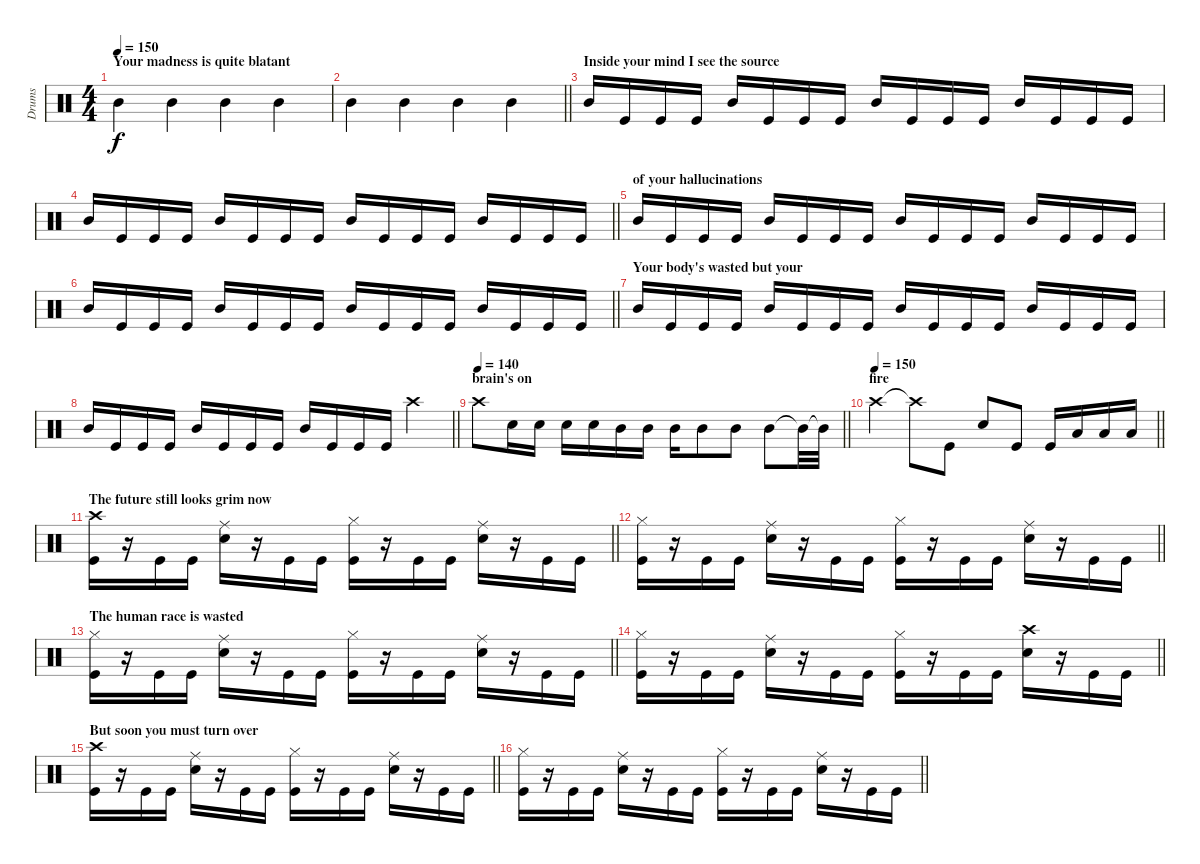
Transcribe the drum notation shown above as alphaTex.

\track ("Drums" "Drums") {instrument percussion}
\staff {score}
\articulation defaults
\ts (4 4)
\section ("" "Your madness is quite blatant")
\tempo 150
\clef neutral
\ks c "Mid Tom (hit)".4{dy f} "Mid Tom (hit)".4 "Mid Tom (hit)".4 "Mid Tom (hit)".4
|
\barLineRight lightlight "Mid Tom (hit)".4 "Mid Tom (hit)".4 "Mid Tom (hit)".4 "Mid Tom (hit)".4
|
\section ("" "Inside your mind I see the source ")
"Mid Tom (hit)".16 "Kick (hit)".16 "Kick (hit)".16 "Kick (hit)".16 "Mid Tom (hit)".16 "Kick (hit)".16 "Kick (hit)".16 "Kick (hit)".16 "Mid Tom (hit)".16 "Kick (hit)".16 "Kick (hit)".16 "Kick (hit)".16 "Mid Tom (hit)".16 "Kick (hit)".16 "Kick (hit)".16 "Kick (hit)".16 |
\barLineRight lightlight "Mid Tom (hit)".16 "Kick (hit)".16 "Kick (hit)".16 "Kick (hit)".16 "Mid Tom (hit)".16 "Kick (hit)".16 "Kick (hit)".16 "Kick (hit)".16 "Mid Tom (hit)".16 "Kick (hit)".16 "Kick (hit)".16 "Kick (hit)".16 "Mid Tom (hit)".16 "Kick (hit)".16 "Kick (hit)".16 "Kick (hit)".16
|
\section ("" "of your hallucinations")
"Mid Tom (hit)".16 "Kick (hit)".16 "Kick (hit)".16 "Kick (hit)".16 "Mid Tom (hit)".16 "Kick (hit)".16 "Kick (hit)".16 "Kick (hit)".16 "Mid Tom (hit)".16 "Kick (hit)".16 "Kick (hit)".16 "Kick (hit)".16 "Mid Tom (hit)".16 "Kick (hit)".16 "Kick (hit)".16 "Kick (hit)".16 |
\barLineRight lightlight "Mid Tom (hit)".16 "Kick (hit)".16 "Kick (hit)".16 "Kick (hit)".16 "Mid Tom (hit)".16 "Kick (hit)".16 "Kick (hit)".16 "Kick (hit)".16 "Mid Tom (hit)".16 "Kick (hit)".16 "Kick (hit)".16 "Kick (hit)".16 "Mid Tom (hit)".16 "Kick (hit)".16 "Kick (hit)".16 "Kick (hit)".16
|
\section ("" "Your body's wasted but your ")
"Mid Tom (hit)".16 "Kick (hit)".16 "Kick (hit)".16 "Kick (hit)".16 "Mid Tom (hit)".16 "Kick (hit)".16 "Kick (hit)".16 "Kick (hit)".16 "Mid Tom (hit)".16 "Kick (hit)".16 "Kick (hit)".16 "Kick (hit)".16 "Mid Tom (hit)".16 "Kick (hit)".16 "Kick (hit)".16 "Kick (hit)".16 |
\barLineRight lightlight "Mid Tom (hit)".16 "Kick (hit)".16 "Kick (hit)".16 "Kick (hit)".16 "Mid Tom (hit)".16 "Kick (hit)".16 "Kick (hit)".16 "Kick (hit)".16 "Mid Tom (hit)".16 "Kick (hit)".16 "Kick (hit)".16 "Kick (hit)".16 "Crash high (hit)".4
|
\section ("" "brain's on")
\tempo 140
\barLineRight lightlight "Crash high (hit)".8 "Snare (hit) 2".16 "Snare (hit) 2".16 "Snare (hit) 2".16 "Snare (hit) 2".16 "Mid Tom (hit)".16 "Mid Tom (hit)".16 "Mid Tom (hit)".16 "Mid Tom (hit)".8 "Mid Tom (hit)".8 "Mid Tom (hit)".8 "Mid Tom (hit)"{t}.32 "Mid Tom (hit)"{t}.32
|
\section ("" "fire")
\tempo 150
\barLineRight lightlight "Crash high (hit)".4 "Crash high (hit)"{t}.8 "Kick (hit)".8 "Snare (hit) 2".8 "Kick (hit)".8 "Kick (hit)".16 "Low Tom (hit)".16 "Low Tom (hit)".16 "Low Tom (hit)".16
|
\section ("" "The future still looks grim now")
\barLineRight lightlight
("Crash high (hit)" "Kick (hit)").16 r.16 "Kick (hit)".16 "Kick (hit)".16 ("Ride (middle)" "Snare (hit) 2").16 r.16 "Kick (hit)".16 "Kick (hit)".16 ("Hi-Hat (closed)" "Kick (hit)").16 r.16 "Kick (hit)".16 "Kick (hit)".16 ("Ride (middle)" "Snare (hit) 2").16 r.16 "Kick (hit)".16 "Kick (hit)".16 |
\section ("" "")
\barLineRight lightlight
("Hi-Hat (closed)" "Kick (hit)").16 r.16 "Kick (hit)".16 "Kick (hit)".16 ("Ride (middle)" "Snare (hit) 2").16 r.16 "Kick (hit)".16 "Kick (hit)".16 ("Hi-Hat (closed)" "Kick (hit)").16 r.16 "Kick (hit)".16 "Kick (hit)".16 ("Ride (middle)" "Snare (hit) 2").16 r.16 "Kick (hit)".16 "Kick (hit)".16 |
\section ("" "The human race is wasted")
\barLineRight lightlight
("Hi-Hat (closed)" "Kick (hit)").16 r.16 "Kick (hit)".16 "Kick (hit)".16 ("Ride (middle)" "Snare (hit) 2").16 r.16 "Kick (hit)".16 "Kick (hit)".16 ("Hi-Hat (closed)" "Kick (hit)").16 r.16 "Kick (hit)".16 "Kick (hit)".16 ("Ride (middle)" "Snare (hit) 2").16 r.16 "Kick (hit)".16 "Kick (hit)".16 |
\section ("" "")
\barLineRight lightlight
("Hi-Hat (closed)" "Kick (hit)").16 r.16 "Kick (hit)".16 "Kick (hit)".16 ("Ride (middle)" "Snare (hit) 2").16 r.16 "Kick (hit)".16 "Kick (hit)".16 ("Hi-Hat (closed)" "Kick (hit)").16 r.16 "Kick (hit)".16 "Kick (hit)".16 ("Crash high (hit)" "Snare (hit) 2").16 r.16 "Kick (hit)".16 "Kick (hit)".16 |
\section ("" "But soon you must turn over")
\barLineRight lightlight
("Crash high (hit)" "Kick (hit)").16 r.16 "Kick (hit)".16 "Kick (hit)".16 ("Ride (middle)" "Snare (hit) 2").16 r.16 "Kick (hit)".16 "Kick (hit)".16 ("Hi-Hat (closed)" "Kick (hit)").16 r.16 "Kick (hit)".16 "Kick (hit)".16 ("Ride (middle)" "Snare (hit) 2").16 r.16 "Kick (hit)".16 "Kick (hit)".16 |
\barLineRight lightlight
("Hi-Hat (closed)" "Kick (hit)").16 r.16 "Kick (hit)".16 "Kick (hit)".16 ("Ride (middle)" "Snare (hit) 2").16 r.16 "Kick (hit)".16 "Kick (hit)".16 ("Hi-Hat (closed)" "Kick (hit)").16 r.16 "Kick (hit)".16 "Kick (hit)".16 ("Ride (middle)" "Snare (hit) 2").16 r.16 "Kick (hit)".16 "Kick (hit)".16
